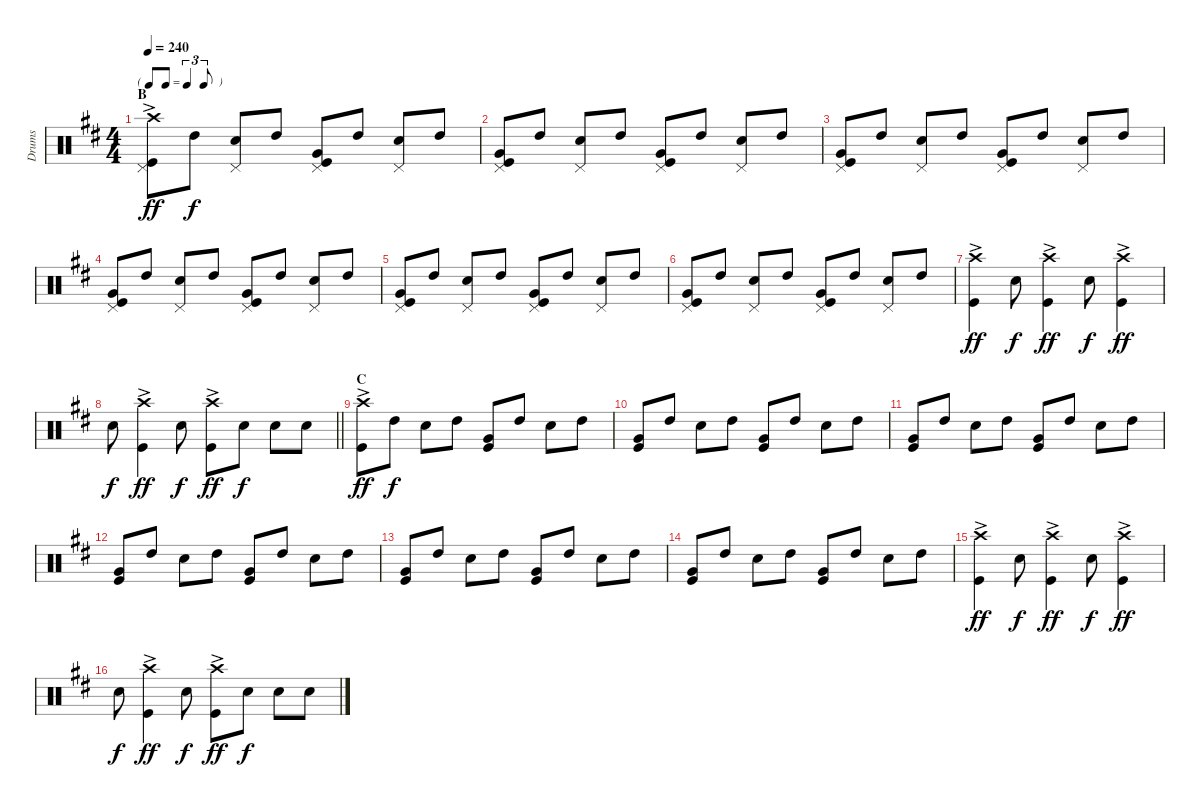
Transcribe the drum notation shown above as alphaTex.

\track ("Drums" "Drums") {instrument percussion}
\staff {score}
\articulation defaults
\ts (4 4)
\tf triplet8th
\section ("" "B")
\tempo 240
\clef neutral
\ks d
("Crash high (hit)"{ac} "Kick (hit)" "Pedal Hi-Hat (hit)").8{dy ff} "High Tom (hit)".8{dy f} ("Pedal Hi-Hat (hit)" "Snare (hit) 2").8 "High Tom (hit)".8 ("Pedal Hi-Hat (hit)" "Kick (hit)" "Very Low Tom (hit)").8 "High Tom (hit)".8 ("Pedal Hi-Hat (hit)" "Snare (hit) 2").8 "High Tom (hit)".8 |
("Very Low Tom (hit)" "Kick (hit)" "Pedal Hi-Hat (hit)").8 "High Tom (hit)".8 ("Pedal Hi-Hat (hit)" "Snare (hit) 2").8 "High Tom (hit)".8 ("Pedal Hi-Hat (hit)" "Kick (hit)" "Very Low Tom (hit)").8 "High Tom (hit)".8 ("Pedal Hi-Hat (hit)" "Snare (hit) 2").8 "High Tom (hit)".8 |
("Very Low Tom (hit)" "Kick (hit)" "Pedal Hi-Hat (hit)").8 "High Tom (hit)".8 ("Pedal Hi-Hat (hit)" "Snare (hit) 2").8 "High Tom (hit)".8 ("Pedal Hi-Hat (hit)" "Kick (hit)" "Very Low Tom (hit)").8 "High Tom (hit)".8 ("Pedal Hi-Hat (hit)" "Snare (hit) 2").8 "High Tom (hit)".8 |
("Very Low Tom (hit)" "Kick (hit)" "Pedal Hi-Hat (hit)").8 "High Tom (hit)".8 ("Pedal Hi-Hat (hit)" "Snare (hit) 2").8 "High Tom (hit)".8 ("Pedal Hi-Hat (hit)" "Kick (hit)" "Very Low Tom (hit)").8 "High Tom (hit)".8 ("Pedal Hi-Hat (hit)" "Snare (hit) 2").8 "High Tom (hit)".8 |
("Very Low Tom (hit)" "Kick (hit)" "Pedal Hi-Hat (hit)").8 "High Tom (hit)".8 ("Pedal Hi-Hat (hit)" "Snare (hit) 2").8 "High Tom (hit)".8 ("Pedal Hi-Hat (hit)" "Kick (hit)" "Very Low Tom (hit)").8 "High Tom (hit)".8 ("Pedal Hi-Hat (hit)" "Snare (hit) 2").8 "High Tom (hit)".8 |
("Very Low Tom (hit)" "Kick (hit)" "Pedal Hi-Hat (hit)").8 "High Tom (hit)".8 ("Pedal Hi-Hat (hit)" "Snare (hit) 2").8 "High Tom (hit)".8 ("Pedal Hi-Hat (hit)" "Kick (hit)" "Very Low Tom (hit)").8 "High Tom (hit)".8 ("Pedal Hi-Hat (hit)" "Snare (hit) 2").8 "High Tom (hit)".8 |
("Crash high (hit)"{ac} "Kick (hit)").4{dy ff} "Snare (hit) 2".8{dy f} ("Kick (hit)" "Crash high (hit)"{ac}).4{dy ff} "Snare (hit) 2".8{dy f} ("Crash high (hit)"{ac} "Kick (hit)").4{dy ff} |
\barLineRight lightlight "Snare (hit) 2".8{dy f}
("Crash high (hit)"{ac} "Kick (hit)").4{dy ff} "Snare (hit) 2".8{dy f} ("Kick (hit)" "Crash high (hit)"{ac}).8{dy ff} "Snare (hit) 2".8{dy f} "Snare (hit) 2".8 "Snare (hit) 2".8 |
\section ("" "C")
("Crash high (hit)"{ac} "Kick (hit)").8{dy ff} "High Tom (hit)".8{dy f} "Snare (hit) 2".8 "High Tom (hit)".8 ("Kick (hit)" "Very Low Tom (hit)").8 "High Tom (hit)".8 "Snare (hit) 2".8 "High Tom (hit)".8 |
("Kick (hit)" "Very Low Tom (hit)").8 "High Tom (hit)".8 "Snare (hit) 2".8 "High Tom (hit)".8 ("Kick (hit)" "Very Low Tom (hit)").8 "High Tom (hit)".8 "Snare (hit) 2".8 "High Tom (hit)".8 |
("Kick (hit)" "Very Low Tom (hit)").8 "High Tom (hit)".8 "Snare (hit) 2".8 "High Tom (hit)".8 ("Kick (hit)" "Very Low Tom (hit)").8 "High Tom (hit)".8 "Snare (hit) 2".8 "High Tom (hit)".8 |
("Kick (hit)" "Very Low Tom (hit)").8 "High Tom (hit)".8 "Snare (hit) 2".8 "High Tom (hit)".8 ("Kick (hit)" "Very Low Tom (hit)").8 "High Tom (hit)".8 "Snare (hit) 2".8 "High Tom (hit)".8 |
("Kick (hit)" "Very Low Tom (hit)").8 "High Tom (hit)".8 "Snare (hit) 2".8 "High Tom (hit)".8 ("Kick (hit)" "Very Low Tom (hit)").8 "High Tom (hit)".8 "Snare (hit) 2".8 "High Tom (hit)".8 |
("Kick (hit)" "Very Low Tom (hit)").8 "High Tom (hit)".8 "Snare (hit) 2".8 "High Tom (hit)".8 ("Kick (hit)" "Very Low Tom (hit)").8 "High Tom (hit)".8 "Snare (hit) 2".8 "High Tom (hit)".8 |
("Kick (hit)" "Crash high (hit)"{ac}).4{dy ff} "Snare (hit) 2".8{dy f} ("Crash high (hit)"{ac} "Kick (hit)").4{dy ff} "Snare (hit) 2".8{dy f} ("Kick (hit)" "Crash high (hit)"{ac}).4{dy ff} |
"Snare (hit) 2".8{dy f} ("Kick (hit)" "Crash high (hit)"{ac}).4{dy ff} "Snare (hit) 2".8{dy f} ("Crash high (hit)"{ac} "Kick (hit)").8{dy ff} "Snare (hit) 2".8{dy f} "Snare (hit) 2".8 "Snare (hit) 2".8
